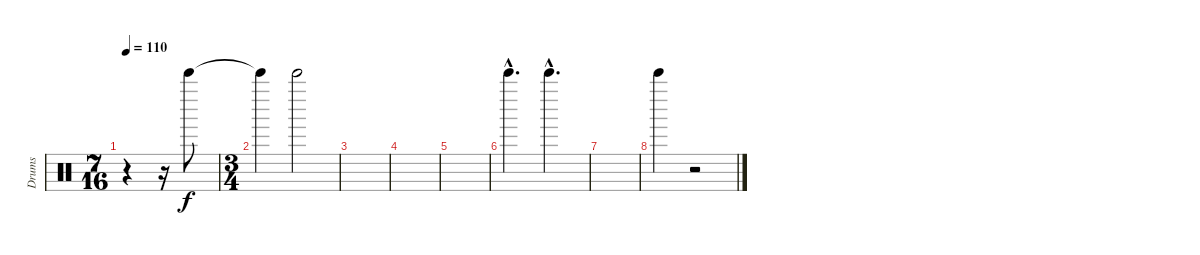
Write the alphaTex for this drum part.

\track ("Drums" "Drums") {instrument percussion}
\staff {score}
\articulation defaults
\ts (7 16)
\tempo 110
\clef neutral
\ks c
r.4{dy f} r.16 "Bell Tree (hit)".8 |
\ts (3 4)
"Bell Tree (hit)"{t}.4 "Bell Tree (hit)".2 |
|
|
|
"Bell Tree (hit)"{hac}.4{d} "Bell Tree (hit)"{hac}.4{d} |
|
"Bell Tree (hit)".4 r.2
